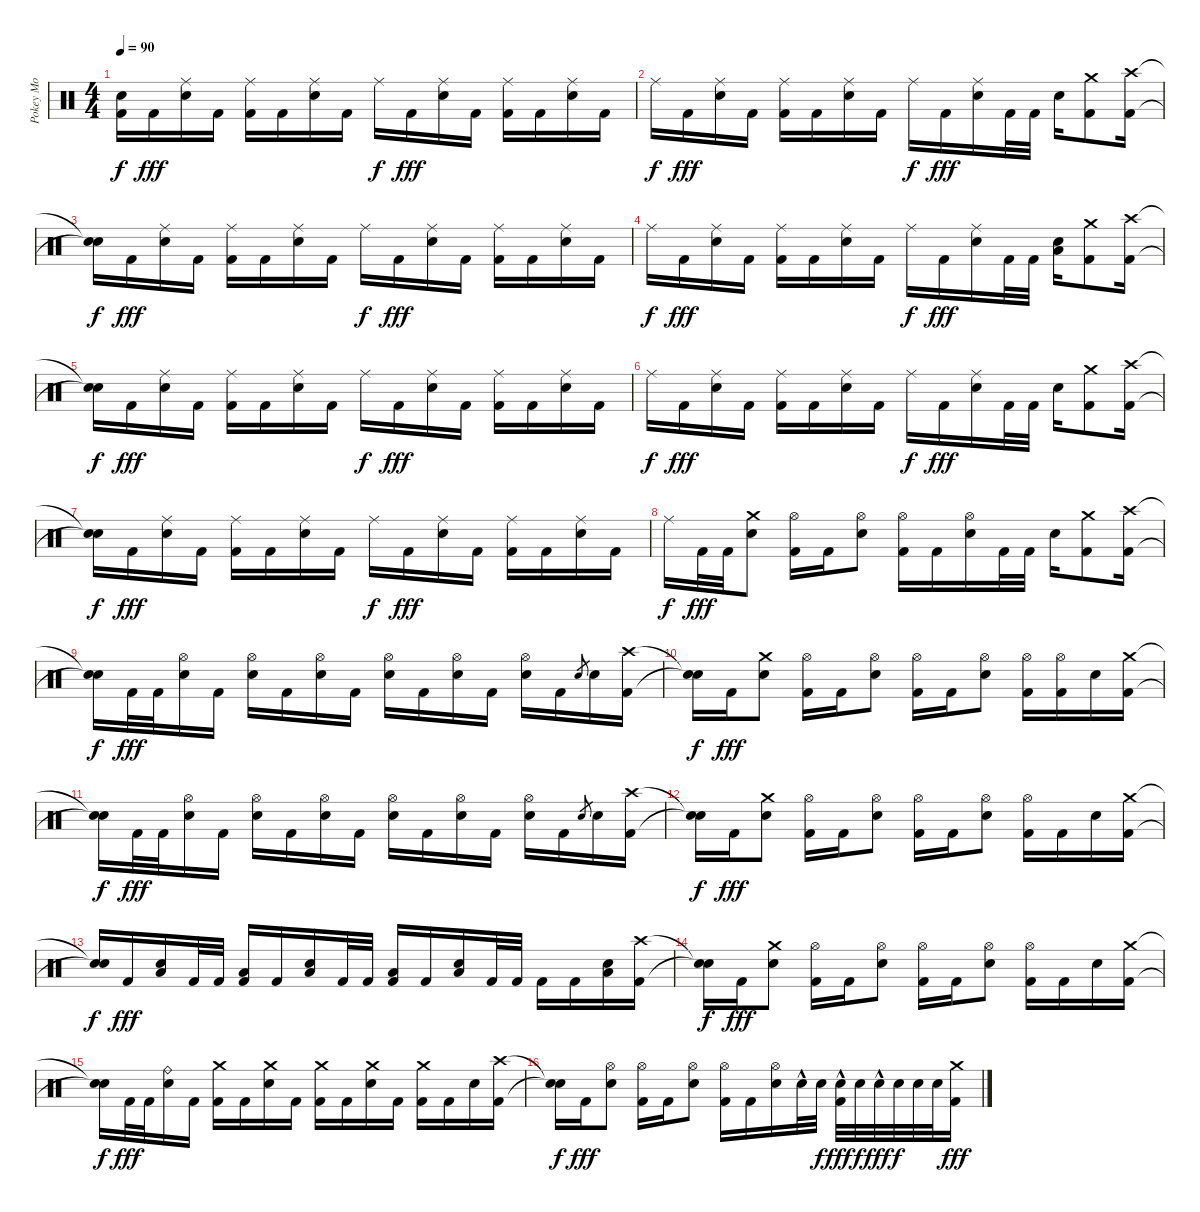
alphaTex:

\track ("Pokey Mo" "Pokey Mo") {instrument percussion}
\staff {score}
\articulation defaults
\ts (4 4)
\tempo 90
\clef neutral
\ks c
("Snare (hit)"{t} "Kick (hit) 2"{t}).16{dy f} "Kick (hit) 2".16{dy fff} ("Ride (middle)" "Electric Snare (hit)").16 "Kick (hit) 2".16 ("Ride (middle)" "Kick (hit) 2").16 "Kick (hit) 2".16 ("Ride (middle)" "Electric Snare (hit)").16 "Kick (hit) 2".16 "Ride (middle)".16{dy f} "Kick (hit) 2".16{dy fff} ("Ride (middle)" "Electric Snare (hit)").16 "Kick (hit) 2".16 ("Ride (middle)" "Kick (hit) 2").16 "Kick (hit) 2".16 ("Ride (middle)" "Electric Snare (hit)").16 "Kick (hit) 2".16 |
"Ride (middle)".16{dy f} "Kick (hit) 2".16{dy fff} ("Ride (middle)" "Electric Snare (hit)").16 "Kick (hit) 2".16 ("Ride (middle)" "Kick (hit) 2").16 "Kick (hit) 2".16 ("Ride (middle)" "Electric Snare (hit)").16 "Kick (hit) 2".16 "Ride (middle)".16{dy f} "Kick (hit) 2".16{dy fff} ("Ride (middle)" "Electric Snare (hit)").16 "Kick (hit) 2".32 "Kick (hit) 2".32 "Electric Snare (hit)".16 ("Crash medium (hit)" "Kick (hit) 2").8 ("Crash high (hit)" "Kick (hit) 2").16 |
("Snare (hit)"{t} "Snare (hit)"{t}).16{dy f} "Kick (hit) 2".16{dy fff} ("Ride (middle)" "Electric Snare (hit)").16 "Kick (hit) 2".16 ("Ride (middle)" "Kick (hit) 2").16 "Kick (hit) 2".16 ("Ride (middle)" "Electric Snare (hit)").16 "Kick (hit) 2".16 "Ride (middle)".16{dy f} "Kick (hit) 2".16{dy fff} ("Ride (middle)" "Electric Snare (hit)").16 "Kick (hit) 2".16 ("Ride (middle)" "Kick (hit) 2").16 "Kick (hit) 2".16 ("Ride (middle)" "Electric Snare (hit)").16 "Kick (hit) 2".16 |
"Ride (middle)".16{dy f} "Kick (hit) 2".16{dy fff} ("Ride (middle)" "Electric Snare (hit)").16 "Kick (hit) 2".16 ("Ride (middle)" "Kick (hit) 2").16 "Kick (hit) 2".16 ("Ride (middle)" "Electric Snare (hit)").16 "Kick (hit) 2".16 "Ride (middle)".16{dy f} "Kick (hit) 2".16{dy fff} ("Ride (middle)" "Electric Snare (hit)").16 "Kick (hit) 2".32 "Kick (hit) 2".32 ("Electric Snare (hit)" "Low Floor Tom (hit)").16 ("Crash medium (hit)" "Kick (hit) 2").8 ("Crash high (hit)" "Kick (hit) 2").16 |
("Snare (hit)"{t} "Snare (hit)"{t}).16{dy f} "Kick (hit) 2".16{dy fff} ("Ride (middle)" "Electric Snare (hit)").16 "Kick (hit) 2".16 ("Ride (middle)" "Kick (hit) 2").16 "Kick (hit) 2".16 ("Ride (middle)" "Electric Snare (hit)").16 "Kick (hit) 2".16 "Ride (middle)".16{dy f} "Kick (hit) 2".16{dy fff} ("Ride (middle)" "Electric Snare (hit)").16 "Kick (hit) 2".16 ("Ride (middle)" "Kick (hit) 2").16 "Kick (hit) 2".16 ("Ride (middle)" "Electric Snare (hit)").16 "Kick (hit) 2".16 |
"Ride (middle)".16{dy f} "Kick (hit) 2".16{dy fff} ("Ride (middle)" "Electric Snare (hit)").16 "Kick (hit) 2".16 ("Ride (middle)" "Kick (hit) 2").16 "Kick (hit) 2".16 ("Ride (middle)" "Electric Snare (hit)").16 "Kick (hit) 2".16 "Ride (middle)".16{dy f} "Kick (hit) 2".16{dy fff} ("Ride (middle)" "Electric Snare (hit)").16 "Kick (hit) 2".32 "Kick (hit) 2".32 "Electric Snare (hit)".16 ("Crash medium (hit)" "Kick (hit) 2").8 ("Crash high (hit)" "Kick (hit) 2").16 |
("Snare (hit)"{t} "Snare (hit)"{t}).16{dy f} "Kick (hit) 2".16{dy fff} ("Ride (middle)" "Electric Snare (hit)").16 "Kick (hit) 2".16 ("Ride (middle)" "Kick (hit) 2").16 "Kick (hit) 2".16 ("Ride (middle)" "Electric Snare (hit)").16 "Kick (hit) 2".16 "Ride (middle)".16{dy f} "Kick (hit) 2".16{dy fff} ("Ride (middle)" "Electric Snare (hit)").16 "Kick (hit) 2".16 ("Ride (middle)" "Kick (hit) 2").16 "Kick (hit) 2".16 ("Ride (middle)" "Electric Snare (hit)").16 "Kick (hit) 2".16 |
"Ride (middle)".16{dy f} "Kick (hit) 2".32{dy fff} "Kick (hit) 2".32 ("Crash medium (hit)" "Electric Snare (hit)").8 ("Hi-Hat (open)" "Kick (hit) 2").16 "Kick (hit) 2".16 ("Hi-Hat (open)" "Electric Snare (hit)").8 ("Hi-Hat (open)" "Kick (hit) 2").16 "Kick (hit) 2".16 ("Hi-Hat (open)" "Electric Snare (hit)").16 "Kick (hit) 2".32 "Kick (hit) 2".32 "Electric Snare (hit)".16 ("Crash medium (hit)" "Kick (hit) 2").8 ("Crash high (hit)" "Kick (hit) 2").16 |
("Snare (hit)"{t} "Snare (hit)"{t}).16{dy f} "Kick (hit) 2".32{dy fff} "Kick (hit) 2".32 ("Hi-Hat (open)" "Electric Snare (hit)").16 "Kick (hit) 2".16 ("Hi-Hat (open)" "Electric Snare (hit)").16 "Kick (hit) 2".16 ("Hi-Hat (open)" "Electric Snare (hit)").16 "Kick (hit) 2".16 ("Hi-Hat (open)" "Electric Snare (hit)").16 "Kick (hit) 2".16 ("Hi-Hat (open)" "Electric Snare (hit)").16 "Kick (hit) 2".16 ("Hi-Hat (open)" "Electric Snare (hit)").16 "Kick (hit) 2".16 "Electric Snare (hit)".8{gr} "Electric Snare (hit)".16 ("Crash high (hit)" "Kick (hit) 2").16 |
("Snare (hit)"{t} "Snare (hit)"{t}).16{dy f} "Kick (hit) 2".16{dy fff} ("Crash medium (hit)" "Electric Snare (hit)").8 ("Hi-Hat (open)" "Kick (hit) 2").16 "Kick (hit) 2".16 ("Hi-Hat (open)" "Electric Snare (hit)").8 ("Hi-Hat (open)" "Kick (hit) 2").16 "Kick (hit) 2".16 ("Hi-Hat (open)" "Electric Snare (hit)").8 ("Hi-Hat (open)" "Kick (hit) 2").16 ("Hi-Hat (open)" "Kick (hit) 2").16 "Electric Snare (hit)".16 ("Crash medium (hit)" "Kick (hit) 2").16 |
("Snare (hit)"{t} "Snare (hit)"{t}).16{dy f} "Kick (hit) 2".32{dy fff} "Kick (hit) 2".32 ("Hi-Hat (open)" "Electric Snare (hit)").16 "Kick (hit) 2".16 ("Hi-Hat (open)" "Electric Snare (hit)").16 "Kick (hit) 2".16 ("Hi-Hat (open)" "Electric Snare (hit)").16 "Kick (hit) 2".16 ("Hi-Hat (open)" "Electric Snare (hit)").16 "Kick (hit) 2".16 ("Hi-Hat (open)" "Electric Snare (hit)").16 "Kick (hit) 2".16 ("Hi-Hat (open)" "Electric Snare (hit)").16 "Kick (hit) 2".16 "Electric Snare (hit)".8{gr} "Electric Snare (hit)".16 ("Crash high (hit)" "Kick (hit) 2").16 |
("Snare (hit)"{t} "Snare (hit)"{t}).16{dy f} "Kick (hit) 2".16{dy fff} ("Crash medium (hit)" "Electric Snare (hit)").8 ("Hi-Hat (open)" "Kick (hit) 2").16 "Kick (hit) 2".16 ("Hi-Hat (open)" "Electric Snare (hit)").8 ("Hi-Hat (open)" "Kick (hit) 2").16 "Kick (hit) 2".16 ("Hi-Hat (open)" "Electric Snare (hit)").8 ("Hi-Hat (open)" "Kick (hit) 2").16 "Kick (hit) 2".16 "Electric Snare (hit)".16 ("Crash medium (hit)" "Kick (hit) 2").16 |
("Snare (hit)"{t} "Snare (hit)"{t}).16{dy f} "Kick (hit) 2".16{dy fff} ("Electric Snare (hit)" "Low Floor Tom (hit)").16 "Kick (hit) 2".32 "Kick (hit) 2".32 ("Low Floor Tom (hit)" "Kick (hit) 2").16 "Kick (hit) 2".16 ("Electric Snare (hit)" "Low Floor Tom (hit)").16 "Kick (hit) 2".32 "Kick (hit) 2".32 ("Low Floor Tom (hit)" "Kick (hit) 2").16 "Kick (hit) 2".16 ("Electric Snare (hit)" "Low Floor Tom (hit)").16 "Kick (hit) 2".32 "Kick (hit) 2".32 "Kick (hit) 2".16 "Kick (hit) 2".16 ("Electric Snare (hit)" "Low Floor Tom (hit)").16 ("Crash high (hit)" "Kick (hit) 2").16 |
("Snare (hit)"{t} "Snare (hit)"{t}).16{dy f} "Kick (hit) 2".16{dy fff} ("Crash medium (hit)" "Electric Snare (hit)").8 ("Hi-Hat (open)" "Kick (hit) 2").16 "Kick (hit) 2".16 ("Hi-Hat (open)" "Electric Snare (hit)").8 ("Hi-Hat (open)" "Kick (hit) 2").16 "Kick (hit) 2".16 ("Hi-Hat (open)" "Electric Snare (hit)").8 ("Hi-Hat (open)" "Kick (hit) 2").16 "Kick (hit) 2".16 "Electric Snare (hit)".16 ("Crash medium (hit)" "Kick (hit) 2").16 |
("Snare (hit)"{t} "Snare (hit)"{t}).16{dy f} "Kick (hit) 2".32{dy fff} "Kick (hit) 2".32 ("Ride (bell)" "Electric Snare (hit)").16 "Kick (hit) 2".16 ("Crash medium (hit)" "Kick (hit) 2").16 "Kick (hit) 2".16 ("Crash medium (hit)" "Electric Snare (hit)").16 "Kick (hit) 2".16 ("Crash medium (hit)" "Kick (hit) 2").16 "Kick (hit) 2".16 ("Crash medium (hit)" "Electric Snare (hit)").16 "Kick (hit) 2".16 ("Crash medium (hit)" "Kick (hit) 2").16 "Kick (hit) 2".16 "Electric Snare (hit)".16 ("Crash high (hit)" "Kick (hit) 2").16 |
("Snare (hit)"{t} "Snare (hit)"{t}).16{dy f} "Kick (hit) 2".16{dy fff} ("Hi-Hat (open)" "Electric Snare (hit)").8 ("Hi-Hat (open)" "Kick (hit) 2").16 "Kick (hit) 2".16 ("Hi-Hat (open)" "Electric Snare (hit)").8 ("Hi-Hat (open)" "Kick (hit) 2").16 "Kick (hit) 2".16 ("Hi-Hat (open)" "Electric Snare (hit)").16 "Electric Snare (hit)"{hac}.32 "Electric Snare (hit)".32{dy f} ("Electric Snare (hit)"{hac} "Kick (hit) 2").32{dy fff} "Electric Snare (hit)".32{dy f} "Electric Snare (hit)"{hac}.32{dy fff} "Electric Snare (hit)".32{dy f} "Electric Snare (hit)".32 "Electric Snare (hit)".32 ("Crash medium (hit)" "Kick (hit) 2").16{dy fff}
